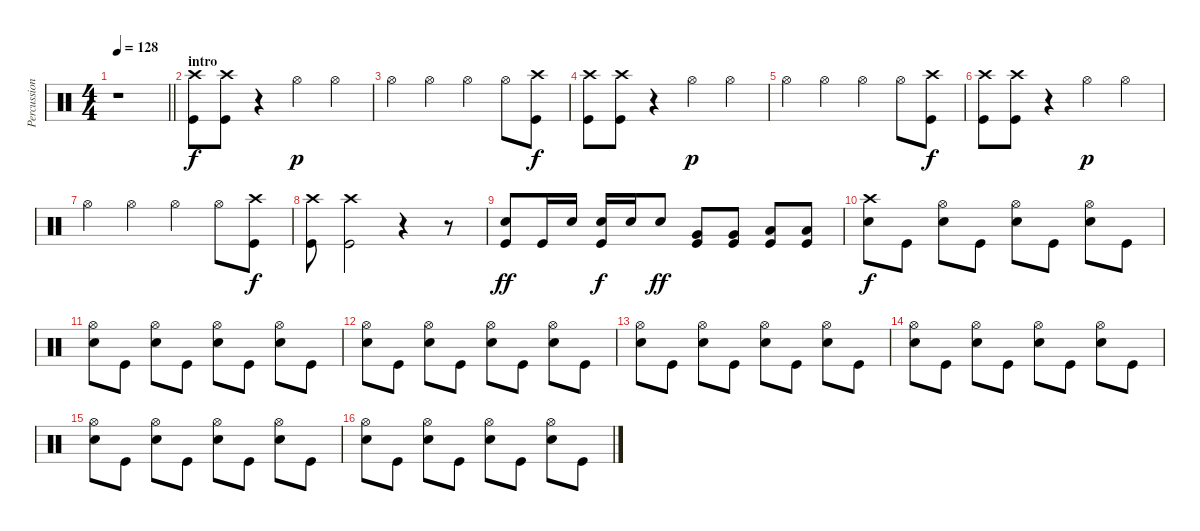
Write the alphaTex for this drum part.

\track ("Percussion" "Percussion") {instrument percussion}
\staff {score}
\articulation defaults
\ts (4 4)
\tempo 128
\tempo 157
\tempo 128
\clef neutral
\barLineRight lightlight
\ks c
r.1{dy f} |
\section ("" "intro")
("Crash high (hit)" "Kick (hit)").8 ("Crash high (hit)" "Kick (hit)").8 r.4 "Hi-Hat (open)".4{dy p} "Hi-Hat (open)".4 |
"Hi-Hat (open)".4 "Hi-Hat (open)".4 "Hi-Hat (open)".4 "Hi-Hat (open)".8 ("Crash high (hit)" "Kick (hit)").8{dy f} |
("Crash high (hit)" "Kick (hit)").8 ("Crash high (hit)" "Kick (hit)").8 r.4 "Hi-Hat (open)".4{dy p} "Hi-Hat (open)".4 |
"Hi-Hat (open)".4 "Hi-Hat (open)".4 "Hi-Hat (open)".4 "Hi-Hat (open)".8 ("Crash high (hit)" "Kick (hit)").8{dy f} |
("Crash high (hit)" "Kick (hit)").8 ("Crash high (hit)" "Kick (hit)").8 r.4 "Hi-Hat (open)".4{dy p} "Hi-Hat (open)".4 |
"Hi-Hat (open)".4 "Hi-Hat (open)".4 "Hi-Hat (open)".4 "Hi-Hat (open)".8 ("Crash high (hit)" "Kick (hit)").8{dy f} |
("Crash high (hit)" "Kick (hit)").8 ("Crash high (hit)" "Kick (hit)").2 r.4 r.8 |
("Snare (hit) 2" "Kick (hit)").8{dy ff} "Kick (hit)".16 "Snare (hit) 2".16 ("Snare (hit) 2" "Kick (hit)").16{dy f} "Snare (hit) 2".16 "Snare (hit) 2".8{dy ff} ("Very Low Tom (hit)" "Kick (hit)").8 ("Very Low Tom (hit)" "Kick (hit)").8 ("Low Floor Tom (hit)" "Kick (hit)").8 ("Low Floor Tom (hit)" "Kick (hit)").8 |
("Crash high (hit)" "Snare (hit) 2").8{dy f} "Kick (hit)".8 ("Hi-Hat (open)" "Snare (hit) 2").8 "Kick (hit)".8 ("Hi-Hat (open)" "Snare (hit) 2").8 "Kick (hit)".8 ("Hi-Hat (open)" "Snare (hit) 2").8 "Kick (hit)".8 |
("Hi-Hat (open)" "Snare (hit) 2").8 "Kick (hit)".8 ("Hi-Hat (open)" "Snare (hit) 2").8 "Kick (hit)".8 ("Hi-Hat (open)" "Snare (hit) 2").8 "Kick (hit)".8 ("Hi-Hat (open)" "Snare (hit) 2").8 "Kick (hit)".8 |
("Hi-Hat (open)" "Snare (hit) 2").8 "Kick (hit)".8 ("Hi-Hat (open)" "Snare (hit) 2").8 "Kick (hit)".8 ("Hi-Hat (open)" "Snare (hit) 2").8 "Kick (hit)".8 ("Hi-Hat (open)" "Snare (hit) 2").8 "Kick (hit)".8 |
("Hi-Hat (open)" "Snare (hit) 2").8 "Kick (hit)".8 ("Hi-Hat (open)" "Snare (hit) 2").8 "Kick (hit)".8 ("Hi-Hat (open)" "Snare (hit) 2").8 "Kick (hit)".8 ("Hi-Hat (open)" "Snare (hit) 2").8 "Kick (hit)".8 |
("Hi-Hat (open)" "Snare (hit) 2").8 "Kick (hit)".8 ("Hi-Hat (open)" "Snare (hit) 2").8 "Kick (hit)".8 ("Hi-Hat (open)" "Snare (hit) 2").8 "Kick (hit)".8 ("Hi-Hat (open)" "Snare (hit) 2").8 "Kick (hit)".8 |
("Hi-Hat (open)" "Snare (hit) 2").8 "Kick (hit)".8 ("Hi-Hat (open)" "Snare (hit) 2").8 "Kick (hit)".8 ("Hi-Hat (open)" "Snare (hit) 2").8 "Kick (hit)".8 ("Hi-Hat (open)" "Snare (hit) 2").8 "Kick (hit)".8 |
("Hi-Hat (open)" "Snare (hit) 2").8 "Kick (hit)".8 ("Hi-Hat (open)" "Snare (hit) 2").8 "Kick (hit)".8 ("Hi-Hat (open)" "Snare (hit) 2").8 "Kick (hit)".8 ("Hi-Hat (open)" "Snare (hit) 2").8 "Kick (hit)".8
